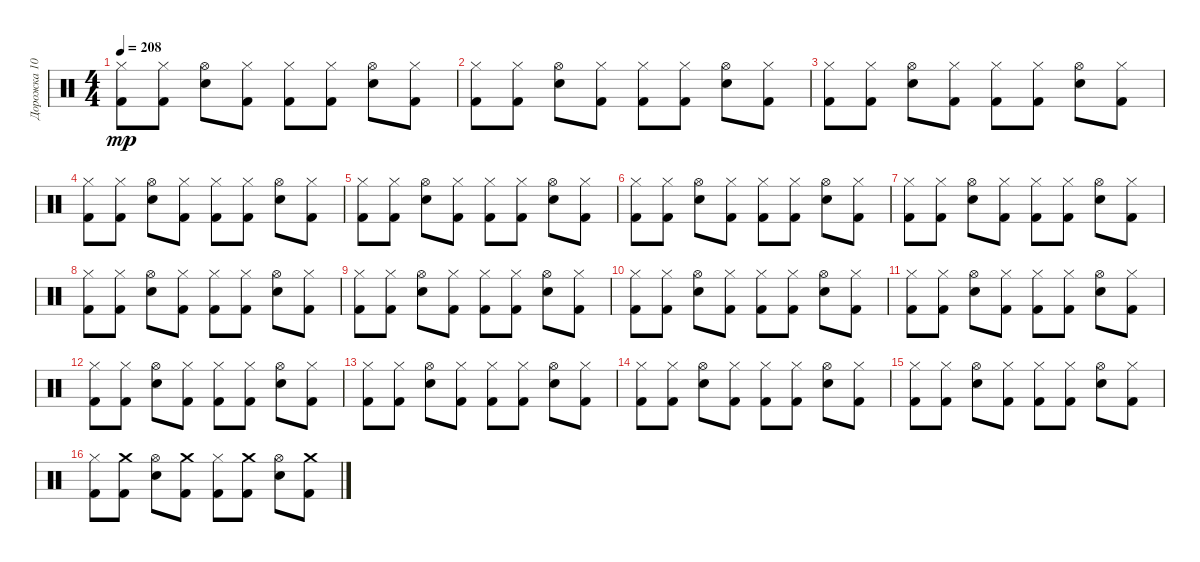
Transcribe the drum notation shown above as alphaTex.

\track ("Дорожка 10" "Дорожка 10") {instrument percussion}
\staff {score}
\articulation defaults
\ts (4 4)
\tempo 208
\clef neutral
\ks c
("Kick (hit) 2" "Hi-Hat (closed)").8{dy mp} ("Kick (hit) 2" "Hi-Hat (closed)").8 ("Snare (hit) 2" "Hi-Hat (open)").8 ("Kick (hit) 2" "Hi-Hat (closed)").8 ("Kick (hit) 2" "Hi-Hat (closed)").8 ("Kick (hit) 2" "Hi-Hat (closed)").8 ("Snare (hit) 2" "Hi-Hat (open)").8 ("Kick (hit) 2" "Hi-Hat (closed)").8 |
("Kick (hit) 2" "Hi-Hat (closed)").8 ("Kick (hit) 2" "Hi-Hat (closed)").8 ("Snare (hit) 2" "Hi-Hat (open)").8 ("Kick (hit) 2" "Hi-Hat (closed)").8 ("Kick (hit) 2" "Hi-Hat (closed)").8 ("Kick (hit) 2" "Hi-Hat (closed)").8 ("Snare (hit) 2" "Hi-Hat (open)").8 ("Kick (hit) 2" "Hi-Hat (closed)").8 |
("Kick (hit) 2" "Hi-Hat (closed)").8 ("Kick (hit) 2" "Hi-Hat (closed)").8 ("Snare (hit) 2" "Hi-Hat (open)").8 ("Kick (hit) 2" "Hi-Hat (closed)").8 ("Kick (hit) 2" "Hi-Hat (closed)").8 ("Kick (hit) 2" "Hi-Hat (closed)").8 ("Snare (hit) 2" "Hi-Hat (open)").8 ("Kick (hit) 2" "Hi-Hat (closed)").8 |
("Kick (hit) 2" "Hi-Hat (closed)").8 ("Kick (hit) 2" "Hi-Hat (closed)").8 ("Snare (hit) 2" "Hi-Hat (open)").8 ("Kick (hit) 2" "Hi-Hat (closed)").8 ("Kick (hit) 2" "Hi-Hat (closed)").8 ("Kick (hit) 2" "Hi-Hat (closed)").8 ("Snare (hit) 2" "Hi-Hat (open)").8 ("Kick (hit) 2" "Hi-Hat (closed)").8 |
("Kick (hit) 2" "Hi-Hat (closed)").8 ("Kick (hit) 2" "Hi-Hat (closed)").8 ("Snare (hit) 2" "Hi-Hat (open)").8 ("Kick (hit) 2" "Hi-Hat (closed)").8 ("Kick (hit) 2" "Hi-Hat (closed)").8 ("Kick (hit) 2" "Hi-Hat (closed)").8 ("Snare (hit) 2" "Hi-Hat (open)").8 ("Kick (hit) 2" "Hi-Hat (closed)").8 |
("Kick (hit) 2" "Hi-Hat (closed)").8 ("Kick (hit) 2" "Hi-Hat (closed)").8 ("Snare (hit) 2" "Hi-Hat (open)").8 ("Kick (hit) 2" "Hi-Hat (closed)").8 ("Kick (hit) 2" "Hi-Hat (closed)").8 ("Kick (hit) 2" "Hi-Hat (closed)").8 ("Snare (hit) 2" "Hi-Hat (open)").8 ("Kick (hit) 2" "Hi-Hat (closed)").8 |
("Kick (hit) 2" "Hi-Hat (closed)").8 ("Kick (hit) 2" "Hi-Hat (closed)").8 ("Snare (hit) 2" "Hi-Hat (open)").8 ("Kick (hit) 2" "Hi-Hat (closed)").8 ("Kick (hit) 2" "Hi-Hat (closed)").8 ("Kick (hit) 2" "Hi-Hat (closed)").8 ("Snare (hit) 2" "Hi-Hat (open)").8 ("Kick (hit) 2" "Hi-Hat (closed)").8 |
("Kick (hit) 2" "Hi-Hat (closed)").8 ("Kick (hit) 2" "Hi-Hat (closed)").8 ("Snare (hit) 2" "Hi-Hat (open)").8 ("Kick (hit) 2" "Hi-Hat (closed)").8 ("Kick (hit) 2" "Hi-Hat (closed)").8 ("Kick (hit) 2" "Hi-Hat (closed)").8 ("Snare (hit) 2" "Hi-Hat (open)").8 ("Kick (hit) 2" "Hi-Hat (closed)").8 |
("Kick (hit) 2" "Hi-Hat (closed)").8 ("Kick (hit) 2" "Hi-Hat (closed)").8 ("Snare (hit) 2" "Hi-Hat (open)").8 ("Kick (hit) 2" "Hi-Hat (closed)").8 ("Kick (hit) 2" "Hi-Hat (closed)").8 ("Kick (hit) 2" "Hi-Hat (closed)").8 ("Snare (hit) 2" "Hi-Hat (open)").8 ("Kick (hit) 2" "Hi-Hat (closed)").8 |
("Kick (hit) 2" "Hi-Hat (closed)").8 ("Kick (hit) 2" "Hi-Hat (closed)").8 ("Snare (hit) 2" "Hi-Hat (open)").8 ("Kick (hit) 2" "Hi-Hat (closed)").8 ("Kick (hit) 2" "Hi-Hat (closed)").8 ("Kick (hit) 2" "Hi-Hat (closed)").8 ("Snare (hit) 2" "Hi-Hat (open)").8 ("Kick (hit) 2" "Hi-Hat (closed)").8 |
("Kick (hit) 2" "Hi-Hat (closed)").8 ("Kick (hit) 2" "Hi-Hat (closed)").8 ("Snare (hit) 2" "Hi-Hat (open)").8 ("Kick (hit) 2" "Hi-Hat (closed)").8 ("Kick (hit) 2" "Hi-Hat (closed)").8 ("Kick (hit) 2" "Hi-Hat (closed)").8 ("Snare (hit) 2" "Hi-Hat (open)").8 ("Kick (hit) 2" "Hi-Hat (closed)").8 |
("Kick (hit) 2" "Hi-Hat (closed)").8 ("Kick (hit) 2" "Hi-Hat (closed)").8 ("Snare (hit) 2" "Hi-Hat (open)").8 ("Kick (hit) 2" "Hi-Hat (closed)").8 ("Kick (hit) 2" "Hi-Hat (closed)").8 ("Kick (hit) 2" "Hi-Hat (closed)").8 ("Snare (hit) 2" "Hi-Hat (open)").8 ("Kick (hit) 2" "Hi-Hat (closed)").8 |
("Kick (hit) 2" "Hi-Hat (closed)").8 ("Kick (hit) 2" "Hi-Hat (closed)").8 ("Snare (hit) 2" "Hi-Hat (open)").8 ("Kick (hit) 2" "Hi-Hat (closed)").8 ("Kick (hit) 2" "Hi-Hat (closed)").8 ("Kick (hit) 2" "Hi-Hat (closed)").8 ("Snare (hit) 2" "Hi-Hat (open)").8 ("Kick (hit) 2" "Hi-Hat (closed)").8 |
("Kick (hit) 2" "Hi-Hat (closed)").8 ("Kick (hit) 2" "Hi-Hat (closed)").8 ("Snare (hit) 2" "Hi-Hat (open)").8 ("Kick (hit) 2" "Hi-Hat (closed)").8 ("Kick (hit) 2" "Hi-Hat (closed)").8 ("Kick (hit) 2" "Hi-Hat (closed)").8 ("Snare (hit) 2" "Hi-Hat (open)").8 ("Kick (hit) 2" "Hi-Hat (closed)").8 |
("Kick (hit) 2" "Hi-Hat (closed)").8 ("Kick (hit) 2" "Hi-Hat (closed)").8 ("Snare (hit) 2" "Hi-Hat (open)").8 ("Kick (hit) 2" "Hi-Hat (closed)").8 ("Kick (hit) 2" "Hi-Hat (closed)").8 ("Kick (hit) 2" "Hi-Hat (closed)").8 ("Snare (hit) 2" "Hi-Hat (open)").8 ("Kick (hit) 2" "Hi-Hat (closed)").8 |
("Kick (hit) 2" "Hi-Hat (closed)").8 ("Kick (hit) 2" "Crash medium (hit)").8 ("Snare (hit) 2" "Hi-Hat (open)").8 ("Kick (hit) 2" "Crash medium (hit)").8 ("Kick (hit) 2" "Hi-Hat (closed)").8 ("Kick (hit) 2" "Crash medium (hit)").8 ("Snare (hit) 2" "Hi-Hat (open)").8 ("Kick (hit) 2" "Crash medium (hit)").8
